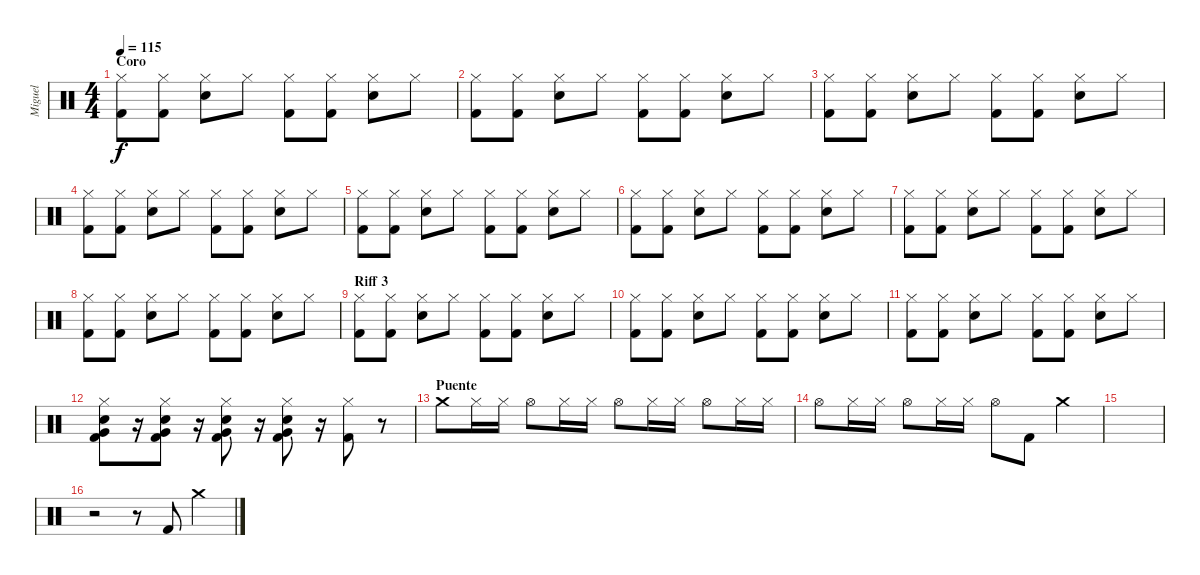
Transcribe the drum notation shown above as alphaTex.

\track ("Miguel" "Miguel") {instrument percussion}
\staff {score}
\articulation defaults
\ts (4 4)
\section ("" "Coro")
\tempo 115
\clef neutral
\ks c
("Hi-Hat (closed)" "Kick (hit) 2").8{dy f} ("Hi-Hat (closed)" "Kick (hit) 2").8 ("Hi-Hat (closed)" "Snare (hit) 2").8 "Hi-Hat (closed)".8 ("Hi-Hat (closed)" "Kick (hit) 2").8 ("Hi-Hat (closed)" "Kick (hit) 2").8 ("Hi-Hat (closed)" "Snare (hit) 2").8 "Hi-Hat (closed)".8 |
("Hi-Hat (closed)" "Kick (hit) 2").8 ("Hi-Hat (closed)" "Kick (hit) 2").8 ("Hi-Hat (closed)" "Snare (hit) 2").8 "Hi-Hat (closed)".8 ("Hi-Hat (closed)" "Kick (hit) 2").8 ("Hi-Hat (closed)" "Kick (hit) 2").8 ("Hi-Hat (closed)" "Snare (hit) 2").8 "Hi-Hat (closed)".8 |
("Hi-Hat (closed)" "Kick (hit) 2").8 ("Hi-Hat (closed)" "Kick (hit) 2").8 ("Hi-Hat (closed)" "Snare (hit) 2").8 "Hi-Hat (closed)".8 ("Hi-Hat (closed)" "Kick (hit) 2").8 ("Hi-Hat (closed)" "Kick (hit) 2").8 ("Hi-Hat (closed)" "Snare (hit) 2").8 "Hi-Hat (closed)".8 |
("Hi-Hat (closed)" "Kick (hit) 2").8 ("Hi-Hat (closed)" "Kick (hit) 2").8 ("Hi-Hat (closed)" "Snare (hit) 2").8 "Hi-Hat (closed)".8 ("Hi-Hat (closed)" "Kick (hit) 2").8 ("Hi-Hat (closed)" "Kick (hit) 2").8 ("Hi-Hat (closed)" "Snare (hit) 2").8 "Hi-Hat (closed)".8 |
("Hi-Hat (closed)" "Kick (hit) 2").8 ("Hi-Hat (closed)" "Kick (hit) 2").8 ("Hi-Hat (closed)" "Snare (hit) 2").8 "Hi-Hat (closed)".8 ("Hi-Hat (closed)" "Kick (hit) 2").8 ("Hi-Hat (closed)" "Kick (hit) 2").8 ("Hi-Hat (closed)" "Snare (hit) 2").8 "Hi-Hat (closed)".8 |
("Hi-Hat (closed)" "Kick (hit) 2").8 ("Hi-Hat (closed)" "Kick (hit) 2").8 ("Hi-Hat (closed)" "Snare (hit) 2").8 "Hi-Hat (closed)".8 ("Hi-Hat (closed)" "Kick (hit) 2").8 ("Hi-Hat (closed)" "Kick (hit) 2").8 ("Hi-Hat (closed)" "Snare (hit) 2").8 "Hi-Hat (closed)".8 |
("Hi-Hat (closed)" "Kick (hit) 2").8 ("Hi-Hat (closed)" "Kick (hit) 2").8 ("Hi-Hat (closed)" "Snare (hit) 2").8 "Hi-Hat (closed)".8 ("Hi-Hat (closed)" "Kick (hit) 2").8 ("Hi-Hat (closed)" "Kick (hit) 2").8 ("Hi-Hat (closed)" "Snare (hit) 2").8 "Hi-Hat (closed)".8 |
("Hi-Hat (closed)" "Kick (hit) 2").8 ("Hi-Hat (closed)" "Kick (hit) 2").8 ("Hi-Hat (closed)" "Snare (hit) 2").8 "Hi-Hat (closed)".8 ("Hi-Hat (closed)" "Kick (hit) 2").8 ("Hi-Hat (closed)" "Kick (hit) 2").8 ("Hi-Hat (closed)" "Snare (hit) 2").8 "Hi-Hat (closed)".8 |
\section ("" "Riff 3")
("Hi-Hat (closed)" "Kick (hit) 2").8 ("Hi-Hat (closed)" "Kick (hit) 2").8 ("Hi-Hat (closed)" "Snare (hit) 2").8 "Hi-Hat (closed)".8 ("Hi-Hat (closed)" "Kick (hit) 2").8 ("Hi-Hat (closed)" "Kick (hit) 2").8 ("Hi-Hat (closed)" "Snare (hit) 2").8 "Hi-Hat (closed)".8 |
("Hi-Hat (closed)" "Kick (hit) 2").8 ("Hi-Hat (closed)" "Kick (hit) 2").8 ("Hi-Hat (closed)" "Snare (hit) 2").8 "Hi-Hat (closed)".8 ("Hi-Hat (closed)" "Kick (hit) 2").8 ("Hi-Hat (closed)" "Kick (hit) 2").8 ("Hi-Hat (closed)" "Snare (hit) 2").8 "Hi-Hat (closed)".8 |
("Hi-Hat (closed)" "Kick (hit) 2").8 ("Hi-Hat (closed)" "Kick (hit) 2").8 ("Hi-Hat (closed)" "Snare (hit) 2").8 "Hi-Hat (closed)".8 ("Hi-Hat (closed)" "Kick (hit) 2").8 ("Hi-Hat (closed)" "Kick (hit) 2").8 ("Hi-Hat (closed)" "Snare (hit) 2").8 "Hi-Hat (closed)".8 |
("Hi-Hat (closed)" "Snare (hit) 2" "Very Low Tom (hit)" "Kick (hit) 2").8 r.16 ("Hi-Hat (closed)" "Snare (hit) 2" "Very Low Tom (hit)" "Kick (hit) 2").8 r.16 ("Hi-Hat (closed)" "Snare (hit) 2" "Very Low Tom (hit)" "Kick (hit) 2").8 r.16 ("Hi-Hat (closed)" "Snare (hit) 2" "Very Low Tom (hit)" "Kick (hit) 2").8 r.16 ("Hi-Hat (closed)" "Kick (hit) 2").8 r.8 |
\section ("" "Puente")
"Crash medium (hit)".8 "Hi-Hat (closed)".16 "Hi-Hat (closed)".16 "Hi-Hat (open)".8 "Hi-Hat (closed)".16 "Hi-Hat (closed)".16 "Hi-Hat (open)".8 "Hi-Hat (closed)".16 "Hi-Hat (closed)".16 "Hi-Hat (open)".8 "Hi-Hat (closed)".16 "Hi-Hat (closed)".16 |
"Hi-Hat (open)".8 "Hi-Hat (closed)".16 "Hi-Hat (closed)".16 "Hi-Hat (open)".8 "Hi-Hat (closed)".16 "Hi-Hat (closed)".16 "Hi-Hat (open)".8 "Kick (hit) 2".8 "Crash medium (hit)".4 |
|
r.2 r.8 "Kick (hit) 2".8 "Crash medium (hit)".4
